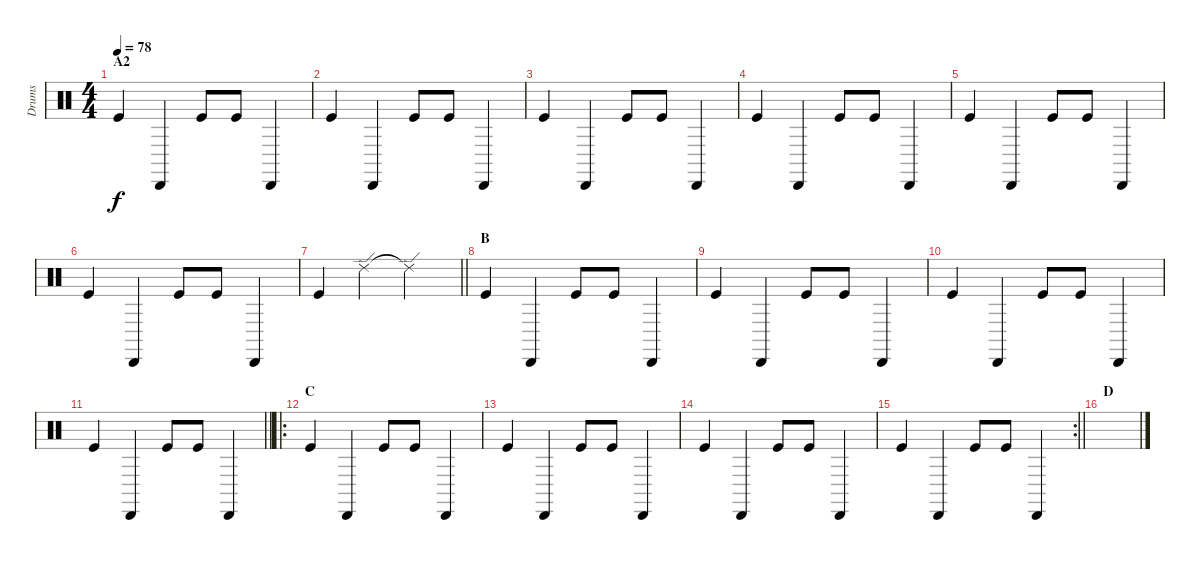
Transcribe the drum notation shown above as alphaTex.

\track ("Drums" "Drums") {instrument percussion}
\staff {score}
\articulation defaults
\ts (4 4)
\section ("" "A2")
\tempo 78
\clef neutral
\ks c "Kick (hit)".4{dy f} "Cabasa (hit)".4 "Kick (hit)".8 "Kick (hit)".8 "Cabasa (hit)".4
|
"Kick (hit)".4 "Cabasa (hit)".4 "Kick (hit)".8 "Kick (hit)".8 "Cabasa (hit)".4 |
"Kick (hit)".4 "Cabasa (hit)".4 "Kick (hit)".8 "Kick (hit)".8 "Cabasa (hit)".4 |
"Kick (hit)".4 "Cabasa (hit)".4 "Kick (hit)".8 "Kick (hit)".8 "Cabasa (hit)".4 |
"Kick (hit)".4 "Cabasa (hit)".4 "Kick (hit)".8 "Kick (hit)".8 "Cabasa (hit)".4 |
"Kick (hit)".4 "Cabasa (hit)".4 "Kick (hit)".8 "Kick (hit)".8 "Cabasa (hit)".4 |
\barLineRight lightlight "Kick (hit)".4 "Ride (edge) 2".4 "Ride (edge) 2"{t}.2
|
\section ("" "B")
"Kick (hit)".4 "Cabasa (hit)".4 "Kick (hit)".8 "Kick (hit)".8 "Cabasa (hit)".4 |
"Kick (hit)".4 "Cabasa (hit)".4 "Kick (hit)".8 "Kick (hit)".8 "Cabasa (hit)".4 |
"Kick (hit)".4 "Cabasa (hit)".4 "Kick (hit)".8 "Kick (hit)".8 "Cabasa (hit)".4 |
\barLineRight lightlight "Kick (hit)".4 "Cabasa (hit)".4 "Kick (hit)".8 "Kick (hit)".8 "Cabasa (hit)".4
|
\ro
\section ("" "C")
"Kick (hit)".4 "Cabasa (hit)".4 "Kick (hit)".8 "Kick (hit)".8 "Cabasa (hit)".4 |
"Kick (hit)".4 "Cabasa (hit)".4 "Kick (hit)".8 "Kick (hit)".8 "Cabasa (hit)".4 |
"Kick (hit)".4 "Cabasa (hit)".4 "Kick (hit)".8 "Kick (hit)".8 "Cabasa (hit)".4 |
\rc 2
\barLineRight lightlight "Kick (hit)".4 "Cabasa (hit)".4 "Kick (hit)".8 "Kick (hit)".8 "Cabasa (hit)".4
|
\section ("" "D")
